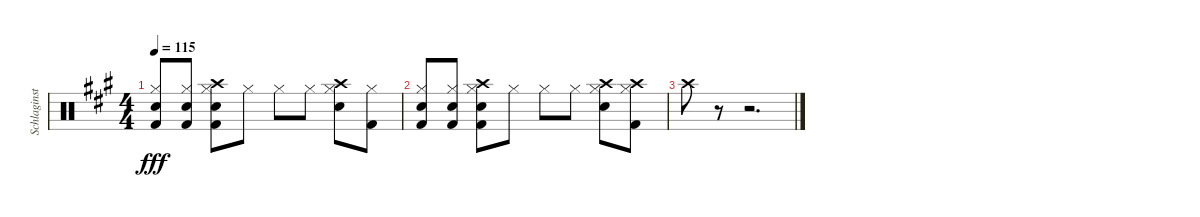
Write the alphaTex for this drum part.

\track ("Schlaginstrumente - Auswahl" "Schlaginst") {instrument percussion}
\staff {score}
\articulation defaults
\ts (4 4)
\tempo 115
\clef neutral
\ks a
("Snare (hit) 2" "Hi-Hat (closed)" "Kick (hit) 2").8{dy fff} ("Kick (hit) 2" "Snare (hit) 2" "Hi-Hat (closed)").8 ("Kick (hit) 2" "Crash high (hit)" "Hi-Hat (closed)" "Electric Snare (hit)").8 "Hi-Hat (closed)".8 "Hi-Hat (closed)".8 "Hi-Hat (closed)".8 ("Crash high (hit)" "Hi-Hat (closed)" "Electric Snare (hit)").8 ("Kick (hit) 2" "Hi-Hat (closed)").8 |
("Snare (hit) 2" "Hi-Hat (closed)" "Kick (hit) 2").8 ("Kick (hit) 2" "Snare (hit) 2" "Hi-Hat (closed)").8 ("Kick (hit) 2" "Crash high (hit)" "Hi-Hat (closed)" "Electric Snare (hit)").8 "Hi-Hat (closed)".8 "Hi-Hat (closed)".8 "Hi-Hat (closed)".8 ("Crash high (hit)" "Hi-Hat (closed)" "Electric Snare (hit)").8 ("Kick (hit) 2" "Crash high (hit)" "Hi-Hat (closed)").8 |
"Crash high (hit)".8 r.8 r.2{d}
